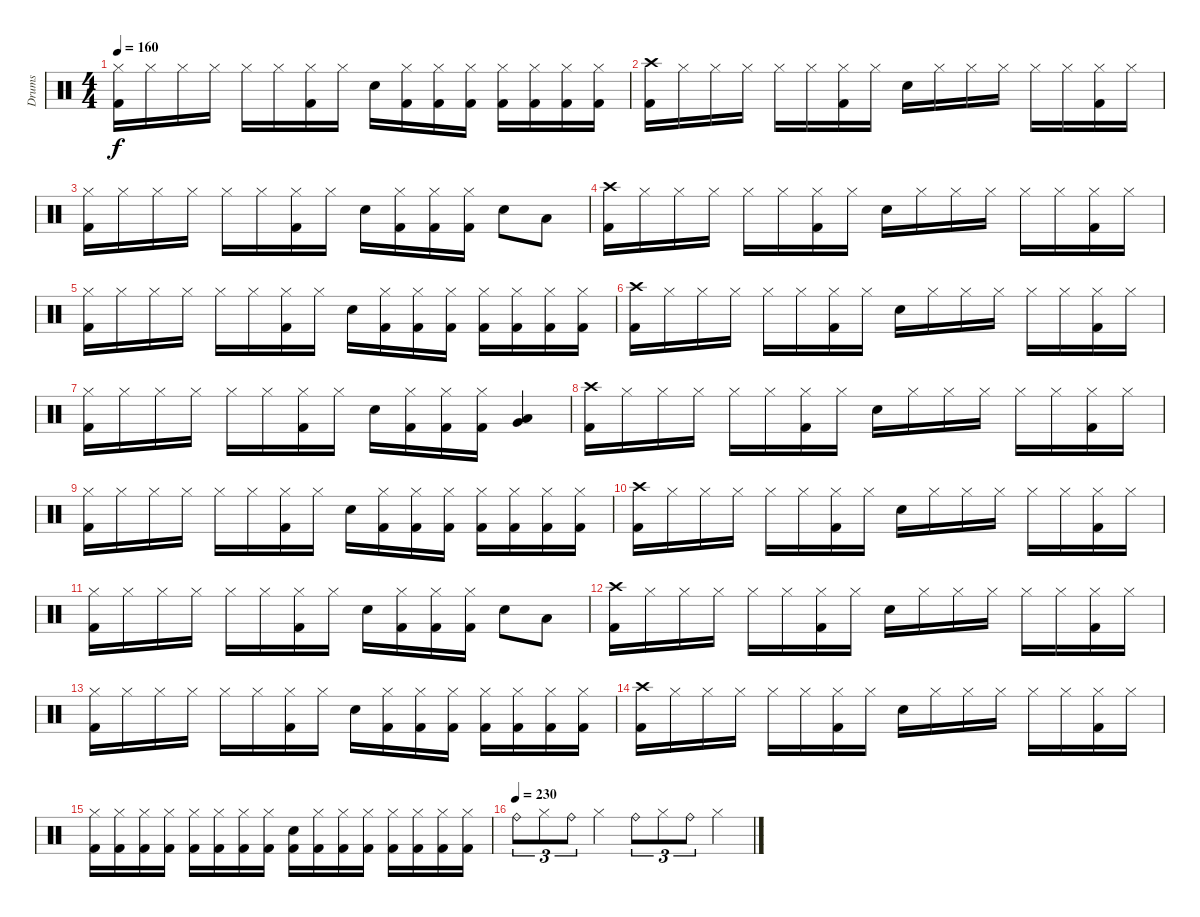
\track ("Drums" "Drums") {instrument percussion}
\staff {score}
\articulation defaults
\ts (4 4)
\tempo 160
\clef neutral
\ks c
("Hi-Hat (closed)" "Kick (hit) 2").16{dy f} "Hi-Hat (closed)".16 "Hi-Hat (closed)".16 "Hi-Hat (closed)".16 "Hi-Hat (closed)".16 "Hi-Hat (closed)".16 ("Hi-Hat (closed)" "Kick (hit) 2").16 "Hi-Hat (closed)".16 "Electric Snare (hit)".16 ("Hi-Hat (closed)" "Kick (hit) 2").16 ("Hi-Hat (closed)" "Kick (hit) 2").16 ("Hi-Hat (closed)" "Kick (hit) 2").16 ("Hi-Hat (closed)" "Kick (hit) 2").16 ("Hi-Hat (closed)" "Kick (hit) 2").16 ("Hi-Hat (closed)" "Kick (hit) 2").16 ("Hi-Hat (closed)" "Kick (hit) 2").16 |
("Crash high (hit)" "Kick (hit) 2").16 "Hi-Hat (closed)".16 "Hi-Hat (closed)".16 "Hi-Hat (closed)".16 "Hi-Hat (closed)".16 "Hi-Hat (closed)".16 ("Hi-Hat (closed)" "Kick (hit) 2").16 "Hi-Hat (closed)".16 "Electric Snare (hit)".16 "Hi-Hat (closed)".16 "Hi-Hat (closed)".16 "Hi-Hat (closed)".16 "Hi-Hat (closed)".16 "Hi-Hat (closed)".16 ("Hi-Hat (closed)" "Kick (hit) 2").16 "Hi-Hat (closed)".16 |
("Hi-Hat (closed)" "Kick (hit) 2").16 "Hi-Hat (closed)".16 "Hi-Hat (closed)".16 "Hi-Hat (closed)".16 "Hi-Hat (closed)".16 "Hi-Hat (closed)".16 ("Hi-Hat (closed)" "Kick (hit) 2").16 "Hi-Hat (closed)".16 "Electric Snare (hit)".16 ("Hi-Hat (closed)" "Kick (hit) 2").16 ("Hi-Hat (closed)" "Kick (hit) 2").16 ("Hi-Hat (closed)" "Kick (hit) 2").16 "Electric Snare (hit)".8 "Low Tom (hit)".8 |
("Crash high (hit)" "Kick (hit) 2").16 "Hi-Hat (closed)".16 "Hi-Hat (closed)".16 "Hi-Hat (closed)".16 "Hi-Hat (closed)".16 "Hi-Hat (closed)".16 ("Hi-Hat (closed)" "Kick (hit) 2").16 "Hi-Hat (closed)".16 "Electric Snare (hit)".16 "Hi-Hat (closed)".16 "Hi-Hat (closed)".16 "Hi-Hat (closed)".16 "Hi-Hat (closed)".16 "Hi-Hat (closed)".16 ("Hi-Hat (closed)" "Kick (hit) 2").16 "Hi-Hat (closed)".16 |
("Hi-Hat (closed)" "Kick (hit) 2").16 "Hi-Hat (closed)".16 "Hi-Hat (closed)".16 "Hi-Hat (closed)".16 "Hi-Hat (closed)".16 "Hi-Hat (closed)".16 ("Hi-Hat (closed)" "Kick (hit) 2").16 "Hi-Hat (closed)".16 "Electric Snare (hit)".16 ("Hi-Hat (closed)" "Kick (hit) 2").16 ("Hi-Hat (closed)" "Kick (hit) 2").16 ("Hi-Hat (closed)" "Kick (hit) 2").16 ("Hi-Hat (closed)" "Kick (hit) 2").16 ("Hi-Hat (closed)" "Kick (hit) 2").16 ("Hi-Hat (closed)" "Kick (hit) 2").16 ("Hi-Hat (closed)" "Kick (hit) 2").16 |
("Crash high (hit)" "Kick (hit) 2").16 "Hi-Hat (closed)".16 "Hi-Hat (closed)".16 "Hi-Hat (closed)".16 "Hi-Hat (closed)".16 "Hi-Hat (closed)".16 ("Hi-Hat (closed)" "Kick (hit) 2").16 "Hi-Hat (closed)".16 "Electric Snare (hit)".16 "Hi-Hat (closed)".16 "Hi-Hat (closed)".16 "Hi-Hat (closed)".16 "Hi-Hat (closed)".16 "Hi-Hat (closed)".16 ("Hi-Hat (closed)" "Kick (hit) 2").16 "Hi-Hat (closed)".16 |
("Hi-Hat (closed)" "Kick (hit) 2").16 "Hi-Hat (closed)".16 "Hi-Hat (closed)".16 "Hi-Hat (closed)".16 "Hi-Hat (closed)".16 "Hi-Hat (closed)".16 ("Hi-Hat (closed)" "Kick (hit) 2").16 "Hi-Hat (closed)".16 "Electric Snare (hit)".16 ("Hi-Hat (closed)" "Kick (hit) 2").16 ("Hi-Hat (closed)" "Kick (hit) 2").16 ("Hi-Hat (closed)" "Kick (hit) 2").16 ("Low Tom (hit)" "Very Low Tom (hit)").4 |
("Crash high (hit)" "Kick (hit) 2").16 "Hi-Hat (closed)".16 "Hi-Hat (closed)".16 "Hi-Hat (closed)".16 "Hi-Hat (closed)".16 "Hi-Hat (closed)".16 ("Hi-Hat (closed)" "Kick (hit) 2").16 "Hi-Hat (closed)".16 "Electric Snare (hit)".16 "Hi-Hat (closed)".16 "Hi-Hat (closed)".16 "Hi-Hat (closed)".16 "Hi-Hat (closed)".16 "Hi-Hat (closed)".16 ("Hi-Hat (closed)" "Kick (hit) 2").16 "Hi-Hat (closed)".16 |
("Hi-Hat (closed)" "Kick (hit) 2").16 "Hi-Hat (closed)".16 "Hi-Hat (closed)".16 "Hi-Hat (closed)".16 "Hi-Hat (closed)".16 "Hi-Hat (closed)".16 ("Hi-Hat (closed)" "Kick (hit) 2").16 "Hi-Hat (closed)".16 "Electric Snare (hit)".16 ("Hi-Hat (closed)" "Kick (hit) 2").16 ("Hi-Hat (closed)" "Kick (hit) 2").16 ("Hi-Hat (closed)" "Kick (hit) 2").16 ("Hi-Hat (closed)" "Kick (hit) 2").16 ("Hi-Hat (closed)" "Kick (hit) 2").16 ("Hi-Hat (closed)" "Kick (hit) 2").16 ("Hi-Hat (closed)" "Kick (hit) 2").16 |
("Crash high (hit)" "Kick (hit) 2").16 "Hi-Hat (closed)".16 "Hi-Hat (closed)".16 "Hi-Hat (closed)".16 "Hi-Hat (closed)".16 "Hi-Hat (closed)".16 ("Hi-Hat (closed)" "Kick (hit) 2").16 "Hi-Hat (closed)".16 "Electric Snare (hit)".16 "Hi-Hat (closed)".16 "Hi-Hat (closed)".16 "Hi-Hat (closed)".16 "Hi-Hat (closed)".16 "Hi-Hat (closed)".16 ("Hi-Hat (closed)" "Kick (hit) 2").16 "Hi-Hat (closed)".16 |
("Hi-Hat (closed)" "Kick (hit) 2").16 "Hi-Hat (closed)".16 "Hi-Hat (closed)".16 "Hi-Hat (closed)".16 "Hi-Hat (closed)".16 "Hi-Hat (closed)".16 ("Hi-Hat (closed)" "Kick (hit) 2").16 "Hi-Hat (closed)".16 "Electric Snare (hit)".16 ("Hi-Hat (closed)" "Kick (hit) 2").16 ("Hi-Hat (closed)" "Kick (hit) 2").16 ("Hi-Hat (closed)" "Kick (hit) 2").16 "Electric Snare (hit)".8 "Low Tom (hit)".8 |
("Crash high (hit)" "Kick (hit) 2").16 "Hi-Hat (closed)".16 "Hi-Hat (closed)".16 "Hi-Hat (closed)".16 "Hi-Hat (closed)".16 "Hi-Hat (closed)".16 ("Hi-Hat (closed)" "Kick (hit) 2").16 "Hi-Hat (closed)".16 "Electric Snare (hit)".16 "Hi-Hat (closed)".16 "Hi-Hat (closed)".16 "Hi-Hat (closed)".16 "Hi-Hat (closed)".16 "Hi-Hat (closed)".16 ("Hi-Hat (closed)" "Kick (hit) 2").16 "Hi-Hat (closed)".16 |
("Hi-Hat (closed)" "Kick (hit) 2").16 "Hi-Hat (closed)".16 "Hi-Hat (closed)".16 "Hi-Hat (closed)".16 "Hi-Hat (closed)".16 "Hi-Hat (closed)".16 ("Hi-Hat (closed)" "Kick (hit) 2").16 "Hi-Hat (closed)".16 "Electric Snare (hit)".16 ("Hi-Hat (closed)" "Kick (hit) 2").16 ("Hi-Hat (closed)" "Kick (hit) 2").16 ("Hi-Hat (closed)" "Kick (hit) 2").16 ("Hi-Hat (closed)" "Kick (hit) 2").16 ("Hi-Hat (closed)" "Kick (hit) 2").16 ("Hi-Hat (closed)" "Kick (hit) 2").16 ("Hi-Hat (closed)" "Kick (hit) 2").16 |
("Crash high (hit)" "Kick (hit) 2").16 "Hi-Hat (closed)".16 "Hi-Hat (closed)".16 "Hi-Hat (closed)".16 "Hi-Hat (closed)".16 "Hi-Hat (closed)".16 ("Hi-Hat (closed)" "Kick (hit) 2").16 "Hi-Hat (closed)".16 "Electric Snare (hit)".16 "Hi-Hat (closed)".16 "Hi-Hat (closed)".16 "Hi-Hat (closed)".16 "Hi-Hat (closed)".16 "Hi-Hat (closed)".16 ("Hi-Hat (closed)" "Kick (hit) 2").16 "Hi-Hat (closed)".16 |
("Hi-Hat (closed)" "Kick (hit) 2").16 ("Hi-Hat (closed)" "Kick (hit) 2").16 ("Hi-Hat (closed)" "Kick (hit) 2").16 ("Hi-Hat (closed)" "Kick (hit) 2").16 ("Hi-Hat (closed)" "Kick (hit) 2").16 ("Hi-Hat (closed)" "Kick (hit) 2").16 ("Hi-Hat (closed)" "Kick (hit) 2").16 ("Hi-Hat (closed)" "Kick (hit) 2").16 ("Electric Snare (hit)" "Kick (hit) 2").16 ("Hi-Hat (closed)" "Kick (hit) 2").16 ("Hi-Hat (closed)" "Kick (hit) 2").16 ("Hi-Hat (closed)" "Kick (hit) 2").16 ("Hi-Hat (closed)" "Kick (hit) 2").16 ("Hi-Hat (closed)" "Kick (hit) 2").16 ("Hi-Hat (closed)" "Kick (hit) 2").16 ("Hi-Hat (closed)" "Kick (hit) 2").16 |
\tempo (230)
"Ride (bell)".8{tu (3 2)} "Hi-Hat (closed)".8{tu (3 2)} "Ride (bell)".8{tu (3 2)} "Hi-Hat (closed)".4 "Ride (bell)".8{tu (3 2)} "Hi-Hat (closed)".8{tu (3 2)} "Ride (bell)".8{tu (3 2)} "Hi-Hat (closed)".4
